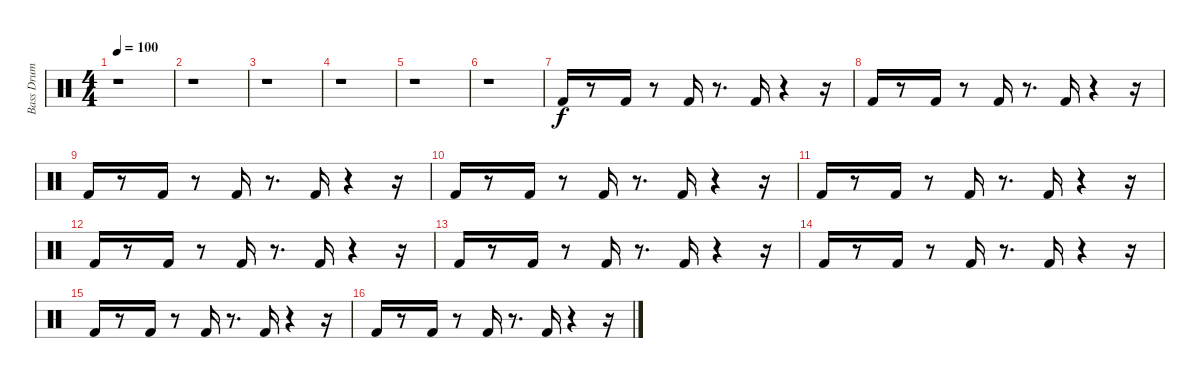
\track ("Bass Drum" "Bass Drum") {instrument percussion}
\staff {score}
\articulation defaults
\ts (4 4)
\tempo 100
\clef neutral
\ks c
r.1{dy f} |
r.1 |
r.1 |
r.1 |
r.1 |
r.1 |
"Kick (hit) 2".16 r.8 "Kick (hit) 2".16 r.8 "Kick (hit) 2".16 r.8{d} "Kick (hit) 2".16 r.4 r.16 |
"Kick (hit) 2".16 r.8 "Kick (hit) 2".16 r.8 "Kick (hit) 2".16 r.8{d} "Kick (hit) 2".16 r.4 r.16 |
"Kick (hit) 2".16 r.8 "Kick (hit) 2".16 r.8 "Kick (hit) 2".16 r.8{d} "Kick (hit) 2".16 r.4 r.16 |
"Kick (hit) 2".16 r.8 "Kick (hit) 2".16 r.8 "Kick (hit) 2".16 r.8{d} "Kick (hit) 2".16 r.4 r.16 |
"Kick (hit) 2".16 r.8 "Kick (hit) 2".16 r.8 "Kick (hit) 2".16 r.8{d} "Kick (hit) 2".16 r.4 r.16 |
"Kick (hit) 2".16 r.8 "Kick (hit) 2".16 r.8 "Kick (hit) 2".16 r.8{d} "Kick (hit) 2".16 r.4 r.16 |
"Kick (hit) 2".16 r.8 "Kick (hit) 2".16 r.8 "Kick (hit) 2".16 r.8{d} "Kick (hit) 2".16 r.4 r.16 |
"Kick (hit) 2".16 r.8 "Kick (hit) 2".16 r.8 "Kick (hit) 2".16 r.8{d} "Kick (hit) 2".16 r.4 r.16 |
"Kick (hit) 2".16 r.8 "Kick (hit) 2".16 r.8 "Kick (hit) 2".16 r.8{d} "Kick (hit) 2".16 r.4 r.16 |
"Kick (hit) 2".16 r.8 "Kick (hit) 2".16 r.8 "Kick (hit) 2".16 r.8{d} "Kick (hit) 2".16 r.4 r.16
